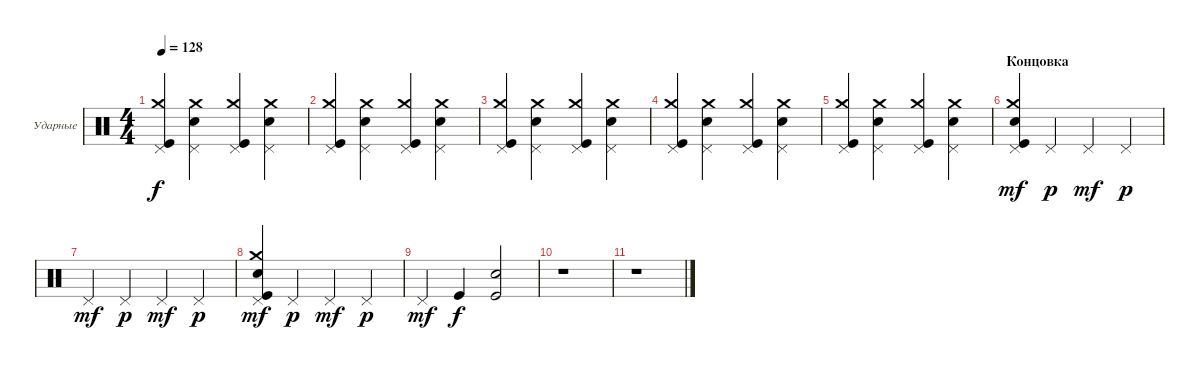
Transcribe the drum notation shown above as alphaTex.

\defaultSystemsLayout 4
\bracketExtendMode groupsimilarinstruments
\firstSystemTrackNameOrientation horizontal
\otherSystemsTrackNameOrientation horizontal
\track ("Е. Кулаков" "Ударные") {instrument percussion}
\staff {score}
\articulation defaults
\ts (4 4)
\tempo 128
\clef neutral
\ks c
("Kick (hit)" "Crash medium (hit)" "Pedal Hi-Hat (hit)").4{dy f} ("Snare (hit) 2" "Crash medium (hit)" "Pedal Hi-Hat (hit)").4 ("Kick (hit)" "Crash medium (hit)" "Pedal Hi-Hat (hit)").4 ("Snare (hit) 2" "Crash medium (hit)" "Pedal Hi-Hat (hit)").4 |
("Kick (hit)" "Crash medium (hit)" "Pedal Hi-Hat (hit)").4 ("Snare (hit) 2" "Crash medium (hit)" "Pedal Hi-Hat (hit)").4 ("Kick (hit)" "Crash medium (hit)" "Pedal Hi-Hat (hit)").4 ("Snare (hit) 2" "Crash medium (hit)" "Pedal Hi-Hat (hit)").4 |
("Kick (hit)" "Crash medium (hit)" "Pedal Hi-Hat (hit)").4 ("Snare (hit) 2" "Crash medium (hit)" "Pedal Hi-Hat (hit)").4 ("Kick (hit)" "Crash medium (hit)" "Pedal Hi-Hat (hit)").4 ("Snare (hit) 2" "Crash medium (hit)" "Pedal Hi-Hat (hit)").4 |
("Kick (hit)" "Crash medium (hit)" "Pedal Hi-Hat (hit)").4 ("Snare (hit) 2" "Crash medium (hit)" "Pedal Hi-Hat (hit)").4 ("Kick (hit)" "Crash medium (hit)" "Pedal Hi-Hat (hit)").4 ("Snare (hit) 2" "Crash medium (hit)" "Pedal Hi-Hat (hit)").4 |
("Kick (hit)" "Crash medium (hit)" "Pedal Hi-Hat (hit)").4 ("Snare (hit) 2" "Crash medium (hit)" "Pedal Hi-Hat (hit)").4 ("Kick (hit)" "Crash medium (hit)" "Pedal Hi-Hat (hit)").4 ("Snare (hit) 2" "Crash medium (hit)" "Pedal Hi-Hat (hit)").4 |
\section ("" "Концовка")
("Snare (hit) 2" "Kick (hit)" "Crash medium (hit)" "Pedal Hi-Hat (hit)").4{dy mf} "Pedal Hi-Hat (hit)".4{dy p} "Pedal Hi-Hat (hit)".4{dy mf} "Pedal Hi-Hat (hit)".4{dy p} |
"Pedal Hi-Hat (hit)".4{dy mf} "Pedal Hi-Hat (hit)".4{dy p} "Pedal Hi-Hat (hit)".4{dy mf} "Pedal Hi-Hat (hit)".4{dy p} |
("Snare (hit) 2" "Kick (hit)" "Crash medium (hit)" "Pedal Hi-Hat (hit)").4{dy mf} "Pedal Hi-Hat (hit)".4{dy p} "Pedal Hi-Hat (hit)".4{dy mf} "Pedal Hi-Hat (hit)".4{dy p} |
"Pedal Hi-Hat (hit)".4{dy mf} "Kick (hit)".4{dy f} ("Snare (hit) 2" "Kick (hit)").2 |
r.1 |
r.1
